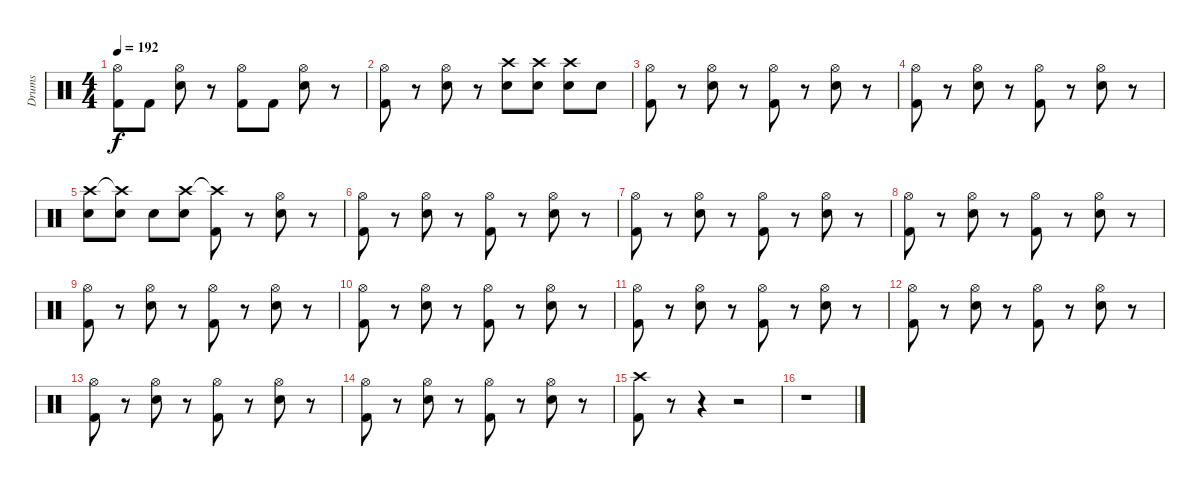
\track ("Drums" "Drums") {instrument percussion}
\staff {score}
\articulation defaults
\ts (4 4)
\tempo 192
\clef neutral
\ks c
("Hi-Hat (open)" "Kick (hit) 2").8{dy f} "Kick (hit) 2".8 ("Hi-Hat (open)" "Snare (hit) 2").8 r.8 ("Hi-Hat (open)" "Kick (hit) 2").8 "Kick (hit) 2".8 ("Hi-Hat (open)" "Snare (hit) 2").8 r.8 |
("Hi-Hat (open)" "Kick (hit) 2").8 r.8 ("Hi-Hat (open)" "Snare (hit) 2").8 r.8 ("Crash high (hit)" "Snare (hit) 2").8 ("Crash high (hit)" "Snare (hit) 2").8 ("Crash high (hit)" "Snare (hit) 2").8 "Snare (hit) 2".8 |
("Hi-Hat (open)" "Kick (hit) 2").8 r.8 ("Hi-Hat (open)" "Snare (hit) 2").8 r.8 ("Hi-Hat (open)" "Kick (hit) 2").8 r.8 ("Hi-Hat (open)" "Snare (hit) 2").8 r.8 |
("Hi-Hat (open)" "Kick (hit) 2").8 r.8 ("Hi-Hat (open)" "Snare (hit) 2").8 r.8 ("Hi-Hat (open)" "Kick (hit) 2").8 r.8 ("Hi-Hat (open)" "Snare (hit) 2").8 r.8 |
("Crash high (hit)" "Electric Snare (hit)").8 ("Crash high (hit)"{t} "Electric Snare (hit)").8 "Electric Snare (hit)".8 ("Crash high (hit)" "Electric Snare (hit)").8 ("Crash high (hit)"{t} "Kick (hit) 2").8 r.8 ("Hi-Hat (open)" "Snare (hit) 2").8 r.8 |
("Hi-Hat (open)" "Kick (hit) 2").8 r.8 ("Hi-Hat (open)" "Snare (hit) 2").8 r.8 ("Hi-Hat (open)" "Kick (hit) 2").8 r.8 ("Hi-Hat (open)" "Snare (hit) 2").8 r.8 |
("Hi-Hat (open)" "Kick (hit) 2").8 r.8 ("Hi-Hat (open)" "Snare (hit) 2").8 r.8 ("Hi-Hat (open)" "Kick (hit) 2").8 r.8 ("Hi-Hat (open)" "Snare (hit) 2").8 r.8 |
("Hi-Hat (open)" "Kick (hit) 2").8 r.8 ("Hi-Hat (open)" "Snare (hit) 2").8 r.8 ("Hi-Hat (open)" "Kick (hit) 2").8 r.8 ("Hi-Hat (open)" "Snare (hit) 2").8 r.8 |
("Hi-Hat (open)" "Kick (hit) 2").8 r.8 ("Hi-Hat (open)" "Snare (hit) 2").8 r.8 ("Hi-Hat (open)" "Kick (hit) 2").8 r.8 ("Hi-Hat (open)" "Snare (hit) 2").8 r.8 |
("Hi-Hat (open)" "Kick (hit) 2").8 r.8 ("Hi-Hat (open)" "Snare (hit) 2").8 r.8 ("Hi-Hat (open)" "Kick (hit) 2").8 r.8 ("Hi-Hat (open)" "Snare (hit) 2").8 r.8 |
("Hi-Hat (open)" "Kick (hit) 2").8 r.8 ("Hi-Hat (open)" "Snare (hit) 2").8 r.8 ("Hi-Hat (open)" "Kick (hit) 2").8 r.8 ("Hi-Hat (open)" "Snare (hit) 2").8 r.8 |
("Hi-Hat (open)" "Kick (hit) 2").8 r.8 ("Hi-Hat (open)" "Snare (hit) 2").8 r.8 ("Hi-Hat (open)" "Kick (hit) 2").8 r.8 ("Hi-Hat (open)" "Snare (hit) 2").8 r.8 |
("Hi-Hat (open)" "Kick (hit) 2").8 r.8 ("Hi-Hat (open)" "Snare (hit) 2").8 r.8 ("Hi-Hat (open)" "Kick (hit) 2").8 r.8 ("Hi-Hat (open)" "Snare (hit) 2").8 r.8 |
("Hi-Hat (open)" "Kick (hit) 2").8 r.8 ("Hi-Hat (open)" "Snare (hit) 2").8 r.8 ("Hi-Hat (open)" "Kick (hit) 2").8 r.8 ("Hi-Hat (open)" "Snare (hit) 2").8 r.8 |
("Crash high (hit)" "Kick (hit) 2").8 r.8 r.4 r.2 |
r.1
